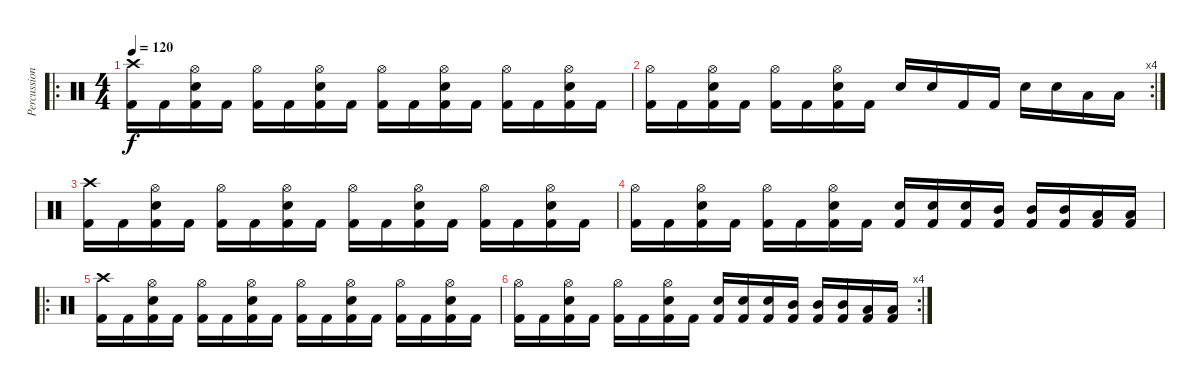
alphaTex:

\track ("Percussion" "Percussion") {instrument percussion}
\staff {score}
\articulation defaults
\ro
\ts (4 4)
\tempo 120
\clef neutral
\ks c
("Crash high (hit)" "Kick (hit) 2").16{dy f} "Kick (hit) 2".16 ("Hi-Hat (open)" "Snare (hit) 2" "Kick (hit) 2").16 "Kick (hit) 2".16 ("Hi-Hat (open)" "Kick (hit) 2").16 "Kick (hit) 2".16 ("Hi-Hat (open)" "Snare (hit) 2" "Kick (hit) 2").16 "Kick (hit) 2".16 ("Hi-Hat (open)" "Kick (hit) 2").16 "Kick (hit) 2".16 ("Hi-Hat (open)" "Snare (hit) 2" "Kick (hit) 2").16 "Kick (hit) 2".16 ("Hi-Hat (open)" "Kick (hit) 2").16 "Kick (hit) 2".16 ("Hi-Hat (open)" "Snare (hit) 2" "Kick (hit) 2").16 "Kick (hit) 2".16 |
\rc 4
("Hi-Hat (open)" "Kick (hit) 2").16 "Kick (hit) 2".16 ("Hi-Hat (open)" "Snare (hit) 2" "Kick (hit) 2").16 "Kick (hit) 2".16 ("Hi-Hat (open)" "Kick (hit) 2").16 "Kick (hit) 2".16 ("Hi-Hat (open)" "Snare (hit) 2" "Kick (hit) 2").16 "Kick (hit) 2".16 "Snare (hit) 2".16 "Snare (hit) 2".16 "Kick (hit) 2".16 "Kick (hit) 2".16 "Snare (hit) 2".16 "Snare (hit) 2".16 "Low Tom (hit)".16 "Low Tom (hit)".16 |
("Crash high (hit)" "Kick (hit) 2").16 "Kick (hit) 2".16 ("Hi-Hat (open)" "Snare (hit) 2" "Kick (hit) 2").16 "Kick (hit) 2".16 ("Hi-Hat (open)" "Kick (hit) 2").16 "Kick (hit) 2".16 ("Hi-Hat (open)" "Snare (hit) 2" "Kick (hit) 2").16 "Kick (hit) 2".16 ("Hi-Hat (open)" "Kick (hit) 2").16 "Kick (hit) 2".16 ("Hi-Hat (open)" "Snare (hit) 2" "Kick (hit) 2").16 "Kick (hit) 2".16 ("Hi-Hat (open)" "Kick (hit) 2").16 "Kick (hit) 2".16 ("Hi-Hat (open)" "Snare (hit) 2" "Kick (hit) 2").16 "Kick (hit) 2".16 |
("Hi-Hat (open)" "Kick (hit) 2").16 "Kick (hit) 2".16 ("Hi-Hat (open)" "Snare (hit) 2" "Kick (hit) 2").16 "Kick (hit) 2".16 ("Hi-Hat (open)" "Kick (hit) 2").16 "Kick (hit) 2".16 ("Hi-Hat (open)" "Snare (hit) 2" "Kick (hit) 2").16 "Kick (hit) 2".16 ("Snare (hit) 2" "Kick (hit) 2").16 ("Snare (hit) 2" "Kick (hit) 2").16 ("Snare (hit) 2" "Kick (hit) 2").16 ("Mid Tom (hit)" "Kick (hit) 2").16 ("Mid Tom (hit)" "Kick (hit) 2").16 ("Mid Tom (hit)" "Kick (hit) 2").16 ("Low Tom (hit)" "Kick (hit) 2").16 ("Low Tom (hit)" "Kick (hit) 2").16 |
\ro
("Crash high (hit)" "Kick (hit) 2").16 "Kick (hit) 2".16 ("Hi-Hat (open)" "Snare (hit) 2" "Kick (hit) 2").16 "Kick (hit) 2".16 ("Hi-Hat (open)" "Kick (hit) 2").16 "Kick (hit) 2".16 ("Hi-Hat (open)" "Snare (hit) 2" "Kick (hit) 2").16 "Kick (hit) 2".16 ("Hi-Hat (open)" "Kick (hit) 2").16 "Kick (hit) 2".16 ("Hi-Hat (open)" "Snare (hit) 2" "Kick (hit) 2").16 "Kick (hit) 2".16 ("Hi-Hat (open)" "Kick (hit) 2").16 "Kick (hit) 2".16 ("Hi-Hat (open)" "Snare (hit) 2" "Kick (hit) 2").16 "Kick (hit) 2".16 |
\rc 4
("Hi-Hat (open)" "Kick (hit) 2").16 "Kick (hit) 2".16 ("Hi-Hat (open)" "Snare (hit) 2" "Kick (hit) 2").16 "Kick (hit) 2".16 ("Hi-Hat (open)" "Kick (hit) 2").16 "Kick (hit) 2".16 ("Hi-Hat (open)" "Snare (hit) 2" "Kick (hit) 2").16 "Kick (hit) 2".16 ("Snare (hit) 2" "Kick (hit) 2").16 ("Snare (hit) 2" "Kick (hit) 2").16 ("Snare (hit) 2" "Kick (hit) 2").16 ("Mid Tom (hit)" "Kick (hit) 2").16 ("Mid Tom (hit)" "Kick (hit) 2").16 ("Mid Tom (hit)" "Kick (hit) 2").16 ("Low Tom (hit)" "Kick (hit) 2").16 ("Low Tom (hit)" "Kick (hit) 2").16
